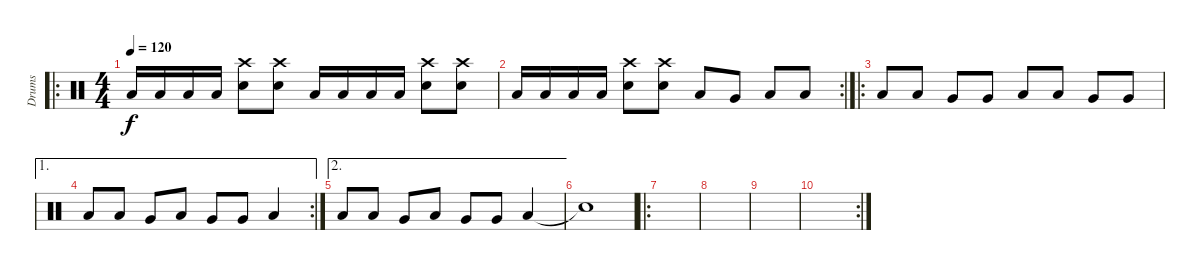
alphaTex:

\track ("Drums" "Drums") {instrument percussion}
\staff {score}
\articulation defaults
\ro
\ts (4 4)
\tempo 120
\clef neutral
\ks c "Low Tom (hit)".16{dy f} "Low Tom (hit)".16 "Low Tom (hit)".16 "Low Tom (hit)".16
("Snare (hit) 2" "Crash high (hit)").8 ("Snare (hit) 2" "Crash high (hit)").8 "Low Tom (hit)".16 "Low Tom (hit)".16 "Low Tom (hit)".16 "Low Tom (hit)".16 ("Snare (hit) 2" "Crash high (hit)").8 ("Snare (hit) 2" "Crash high (hit)").8 |
\rc 2 "Low Tom (hit)".16 "Low Tom (hit)".16 "Low Tom (hit)".16 "Low Tom (hit)".16
("Snare (hit) 2" "Crash high (hit)").8 ("Snare (hit) 2" "Crash high (hit)").8 "Low Tom (hit)".8 "Very Low Tom (hit)".8 "Low Floor Tom (hit)".8 "Low Tom (hit)".8 |
\ro "Low Tom (hit)".8 "Low Tom (hit)".8 "Very Low Tom (hit)".8 "Very Low Tom (hit)".8 "Low Tom (hit)".8 "Low Tom (hit)".8 "Very Low Tom (hit)".8 "Very Low Tom (hit)".8
|
\ae 1
\rc 2 "Low Tom (hit)".8 "Low Tom (hit)".8 "Very Low Tom (hit)".8 "Low Tom (hit)".8 "Very Low Tom (hit)".8 "Very Low Tom (hit)".8 "Low Tom (hit)".4
|
\ae 2 "Low Tom (hit)".8 "Low Tom (hit)".8 "Very Low Tom (hit)".8 "Low Tom (hit)".8 "Very Low Tom (hit)".8 "Very Low Tom (hit)".8 "Low Tom (hit)".4
|
"Snare (hit)"{t}.1 |
\ro
|
|
|
\rc 2
